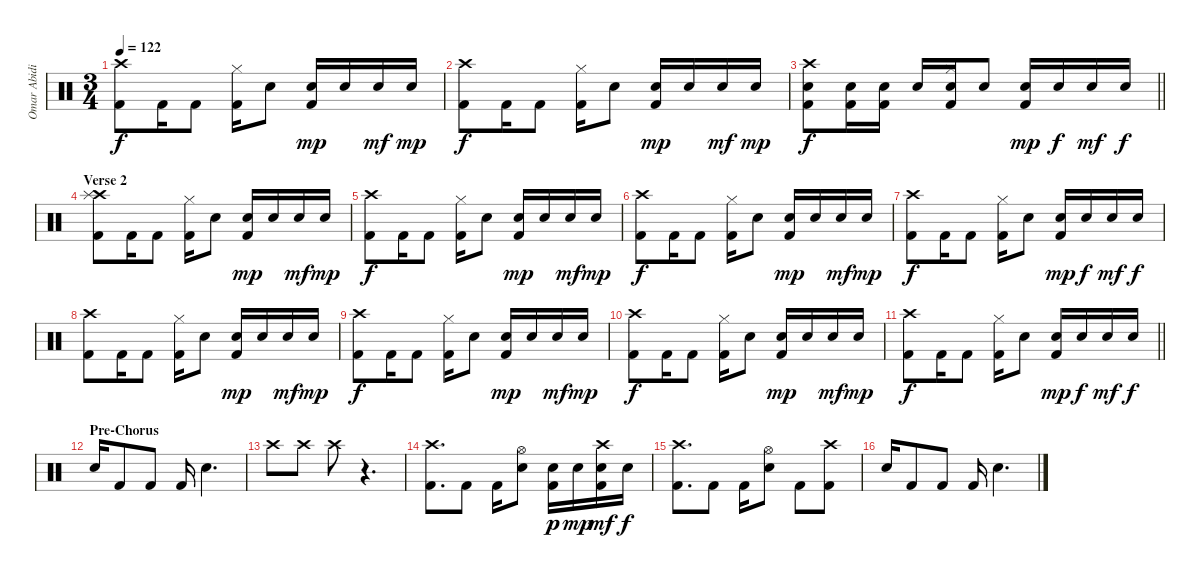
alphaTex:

\track ("Omar Abidi" "Omar Abidi") {instrument percussion}
\staff {score}
\articulation defaults
\ts (3 4)
\tempo 122
\clef neutral
\ks c
("Crash high (hit)" "Kick (hit) 2").8{dy f} "Kick (hit) 2".16 "Kick (hit) 2".8 ("Hi-Hat (closed)" "Kick (hit) 2").16 "Electric Snare (hit)".8 ("Snare (hit) 2" "Kick (hit) 2").16{dy mp} "Snare (hit) 2".16 "Snare (hit) 2".16{dy mf} "Snare (hit) 2".16{dy mp} |
("Crash high (hit)" "Kick (hit) 2").8{dy f} "Kick (hit) 2".16 "Kick (hit) 2".8 ("Hi-Hat (closed)" "Kick (hit) 2").16 "Electric Snare (hit)".8 ("Snare (hit) 2" "Kick (hit) 2").16{dy mp} "Snare (hit) 2".16 "Snare (hit) 2".16{dy mf} "Snare (hit) 2".16{dy mp} |
\barLineRight lightlight
("Crash high (hit)" "Electric Snare (hit)" "Kick (hit) 2").8{dy f} ("Electric Snare (hit)" "Kick (hit) 2").16 ("Electric Snare (hit)" "Kick (hit) 2").16 "Snare (hit) 2".16 ("Hi-Hat (closed)" "Electric Snare (hit)" "Kick (hit) 2").16 "Electric Snare (hit)".8 ("Electric Snare (hit)" "Kick (hit) 2").16{dy mp} "Electric Snare (hit)".16{dy f} "Snare (hit) 2".16{dy mf} "Electric Snare (hit)".16{dy f} |
\section ("" "Verse 2")
("Crash high (hit)" "Splash (hit)" "Kick (hit) 2").8 "Kick (hit) 2".16 "Kick (hit) 2".8 ("Hi-Hat (closed)" "Kick (hit) 2").16 "Electric Snare (hit)".8 ("Snare (hit) 2" "Kick (hit) 2").16{dy mp} "Snare (hit) 2".16 "Snare (hit) 2".16{dy mf} "Snare (hit) 2".16{dy mp} |
("Crash high (hit)" "Kick (hit) 2").8{dy f} "Kick (hit) 2".16 "Kick (hit) 2".8 ("Hi-Hat (closed)" "Kick (hit) 2").16 "Electric Snare (hit)".8 ("Snare (hit) 2" "Kick (hit) 2").16{dy mp} "Snare (hit) 2".16 "Snare (hit) 2".16{dy mf} "Snare (hit) 2".16{dy mp} |
("Crash high (hit)" "Kick (hit) 2").8{dy f} "Kick (hit) 2".16 "Kick (hit) 2".8 ("Hi-Hat (closed)" "Kick (hit) 2").16 "Electric Snare (hit)".8 ("Snare (hit) 2" "Kick (hit) 2").16{dy mp} "Snare (hit) 2".16 "Snare (hit) 2".16{dy mf} "Snare (hit) 2".16{dy mp} |
("Crash high (hit)" "Kick (hit) 2").8{dy f} "Kick (hit) 2".16 "Kick (hit) 2".8 ("Hi-Hat (closed)" "Kick (hit) 2").16 "Electric Snare (hit)".8 ("Electric Snare (hit)" "Kick (hit) 2").16{dy mp} "Electric Snare (hit)".16{dy f} "Snare (hit) 2".16{dy mf} "Electric Snare (hit)".16{dy f} |
("Crash high (hit)" "Kick (hit) 2").8 "Kick (hit) 2".16 "Kick (hit) 2".8 ("Hi-Hat (closed)" "Kick (hit) 2").16 "Electric Snare (hit)".8 ("Snare (hit) 2" "Kick (hit) 2").16{dy mp} "Snare (hit) 2".16 "Snare (hit) 2".16{dy mf} "Snare (hit) 2".16{dy mp} |
("Crash high (hit)" "Kick (hit) 2").8{dy f} "Kick (hit) 2".16 "Kick (hit) 2".8 ("Hi-Hat (closed)" "Kick (hit) 2").16 "Electric Snare (hit)".8 ("Snare (hit) 2" "Kick (hit) 2").16{dy mp} "Snare (hit) 2".16 "Snare (hit) 2".16{dy mf} "Snare (hit) 2".16{dy mp} |
("Crash high (hit)" "Kick (hit) 2").8{dy f} "Kick (hit) 2".16 "Kick (hit) 2".8 ("Hi-Hat (closed)" "Kick (hit) 2").16 "Electric Snare (hit)".8 ("Snare (hit) 2" "Kick (hit) 2").16{dy mp} "Snare (hit) 2".16 "Snare (hit) 2".16{dy mf} "Snare (hit) 2".16{dy mp} |
\barLineRight lightlight
("Crash high (hit)" "Kick (hit) 2").8{dy f} "Kick (hit) 2".16 "Kick (hit) 2".8 ("Hi-Hat (closed)" "Kick (hit) 2").16 "Electric Snare (hit)".8 ("Electric Snare (hit)" "Kick (hit) 2").16{dy mp} "Electric Snare (hit)".16{dy f} "Snare (hit) 2".16{dy mf} "Electric Snare (hit)".16{dy f} |
\section ("" "Pre-Chorus")
"Electric Snare (hit)".16{volume 13} "Kick (hit) 2".8 "Kick (hit) 2".8 "Kick (hit) 2".16 "Electric Snare (hit)".4{d} |
"Crash high (hit)".8 "Crash high (hit)".8 "Crash high (hit)".8 r.4{d} |
("Crash high (hit)" "Kick (hit) 2").8{d} "Kick (hit) 2".8 "Kick (hit) 2".16 ("Hi-Hat (open)" "Electric Snare (hit)").8 ("Snare (hit) 2" "Kick (hit) 2").16{dy p} "Snare (hit) 2".16{dy mp} ("Crash high (hit)" "Snare (hit) 2" "Kick (hit) 2").16{dy mf} "Snare (hit) 2".16{dy f} |
("Crash high (hit)" "Kick (hit) 2").8{d} "Kick (hit) 2".8 "Kick (hit) 2".16 ("Hi-Hat (open)" "Electric Snare (hit)").8 "Kick (hit) 2".8 ("Crash high (hit)" "Kick (hit) 2").8 |
"Electric Snare (hit)".16 "Kick (hit) 2".8 "Kick (hit) 2".8 "Kick (hit) 2".16 "Electric Snare (hit)".4{d}
